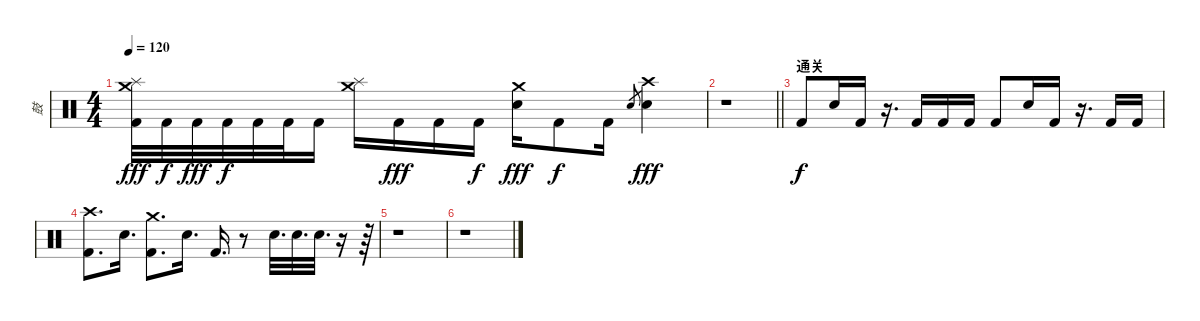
\track ("鼓" "鼓") {instrument percussion}
\staff {score}
\articulation defaults
\ts (4 4)
\tempo 120
\clef neutral
\ks c
("Crash medium (hit)" "Splash (hit)" "Kick (hit) 2").32{dy fff} "Kick (hit) 2".32{dy f} "Kick (hit) 2".32{dy fff} "Kick (hit) 2".32{dy f} "Kick (hit) 2".32 "Kick (hit) 2".32 "Kick (hit) 2".16 ("Crash medium (hit)" "Splash (hit)").16 "Kick (hit) 2".16{dy fff} "Kick (hit) 2".16 "Kick (hit) 2".16{dy f} ("Crash medium (hit)" "Snare (hit) 2").16{dy fff} "Kick (hit) 2".8{dy f} "Kick (hit) 2".16 "Snare (hit) 2".8{gr} ("Crash high (hit)" "Snare (hit) 2").4{dy fff} |
\barLineRight lightlight
r.1 |
\section ("" "通关")
"Kick (hit) 2".8{dy f} "Snare (hit) 2".16 "Kick (hit) 2".16 r.16{d} "Kick (hit) 2".16 "Kick (hit) 2".16 "Kick (hit) 2".16 "Kick (hit) 2".8 "Snare (hit) 2".16 "Kick (hit) 2".16 r.16{d} "Kick (hit) 2".16 "Kick (hit) 2".16 |
("Crash high (hit)" "Kick (hit) 2").8{d} "Snare (hit) 2".16{d} ("Crash medium (hit)" "Kick (hit) 2").8{d} "Snare (hit) 2".16{d} "Kick (hit) 2".16{d} r.8 "Snare (hit) 2".32{d} "Snare (hit) 2".32{d} "Snare (hit) 2".32{d} r.16 r.64 |
r.1 |
r.1
